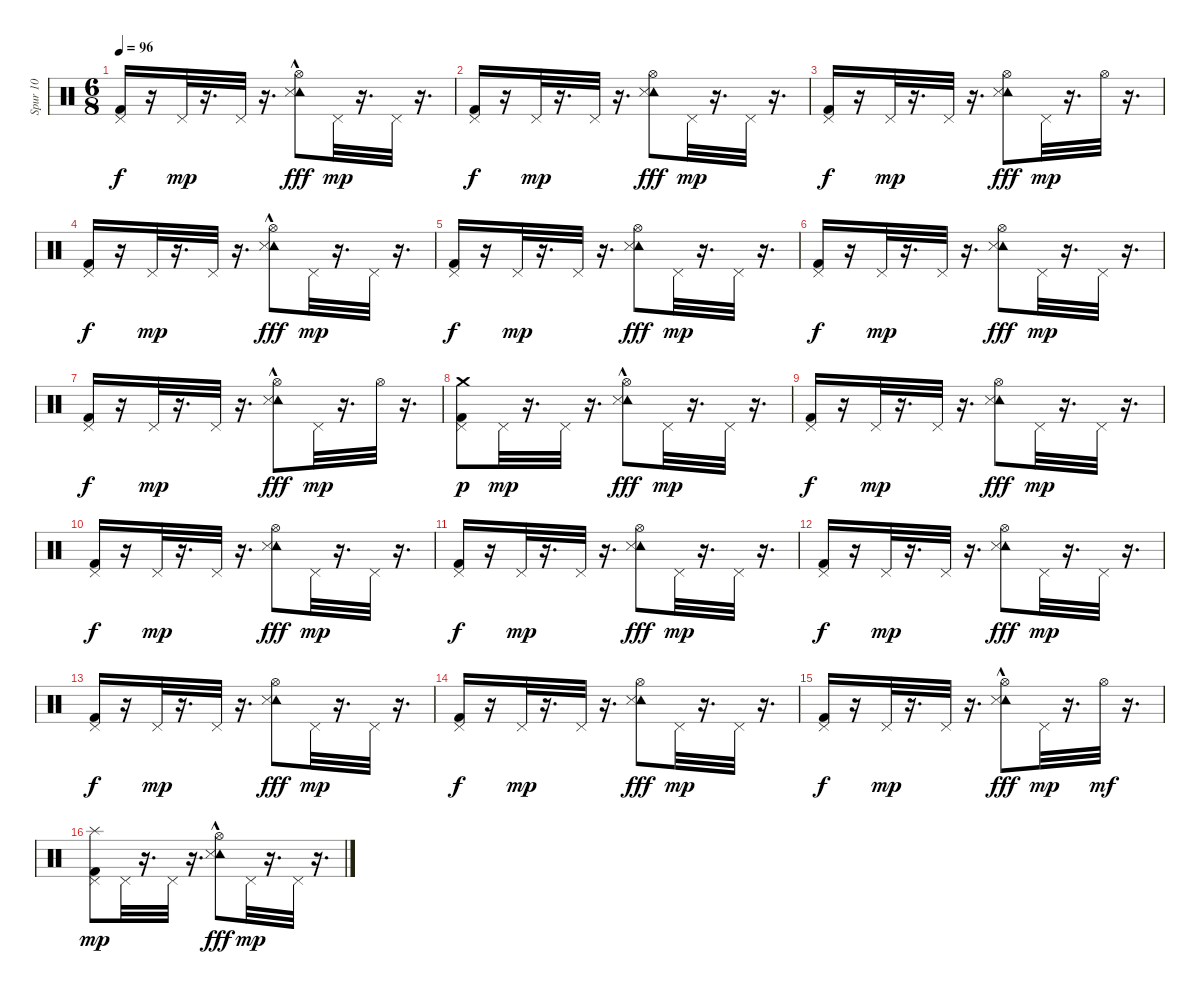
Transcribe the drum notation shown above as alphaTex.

\track ("Spur 10" "Spur 10") {instrument percussion}
\staff {score}
\articulation defaults
\ts (6 8)
\tempo 96
\clef neutral
\ks c
("Pedal Hi-Hat (hit)" "Kick (hit) 2").16{dy f} r.16 "Pedal Hi-Hat (hit)".32{dy mp} r.16{d} "Pedal Hi-Hat (hit)".32 r.16{d} ("Tambourine (hit)"{hac} "Snare (side stick) 3" "Hi-Hat (open)").8{dy fff} "Pedal Hi-Hat (hit)".32{dy mp} r.16{d} "Pedal Hi-Hat (hit)".32 r.16{d} |
("Pedal Hi-Hat (hit)" "Kick (hit) 2").16{dy f} r.16 "Pedal Hi-Hat (hit)".32{dy mp} r.16{d} "Pedal Hi-Hat (hit)".32 r.16{d} ("Tambourine (hit)" "Snare (side stick) 3" "Hi-Hat (open)").8{dy fff} "Pedal Hi-Hat (hit)".32{dy mp} r.16{d} "Pedal Hi-Hat (hit)".32 r.16{d} |
("Pedal Hi-Hat (hit)" "Kick (hit) 2").16{dy f} r.16 "Pedal Hi-Hat (hit)".32{dy mp} r.16{d} "Pedal Hi-Hat (hit)".32 r.16{d} ("Tambourine (hit)" "Snare (side stick) 3" "Hi-Hat (open)").8{dy fff} "Pedal Hi-Hat (hit)".32{dy mp} r.16{d} "Hi-Hat (open)".32 r.16{d} |
("Pedal Hi-Hat (hit)" "Kick (hit) 2").16{dy f} r.16 "Pedal Hi-Hat (hit)".32{dy mp} r.16{d} "Pedal Hi-Hat (hit)".32 r.16{d} ("Tambourine (hit)"{hac} "Snare (side stick) 3" "Hi-Hat (open)").8{dy fff} "Pedal Hi-Hat (hit)".32{dy mp} r.16{d} "Pedal Hi-Hat (hit)".32 r.16{d} |
("Pedal Hi-Hat (hit)" "Kick (hit) 2").16{dy f} r.16 "Pedal Hi-Hat (hit)".32{dy mp} r.16{d} "Pedal Hi-Hat (hit)".32 r.16{d} ("Tambourine (hit)" "Snare (side stick) 3" "Hi-Hat (open)").8{dy fff} "Pedal Hi-Hat (hit)".32{dy mp} r.16{d} "Pedal Hi-Hat (hit)".32 r.16{d} |
("Pedal Hi-Hat (hit)" "Kick (hit) 2").16{dy f} r.16 "Pedal Hi-Hat (hit)".32{dy mp} r.16{d} "Pedal Hi-Hat (hit)".32 r.16{d} ("Tambourine (hit)" "Snare (side stick) 3" "Hi-Hat (open)").8{dy fff} "Pedal Hi-Hat (hit)".32{dy mp} r.16{d} "Pedal Hi-Hat (hit)".32 r.16{d} |
("Pedal Hi-Hat (hit)" "Kick (hit) 2").16{dy f} r.16 "Pedal Hi-Hat (hit)".32{dy mp} r.16{d} "Pedal Hi-Hat (hit)".32 r.16{d} ("Tambourine (hit)"{hac} "Snare (side stick) 3" "Hi-Hat (open)").8{dy fff} "Pedal Hi-Hat (hit)".32{dy mp} r.16{d} "Hi-Hat (open)".32 r.16{d} |
("Crash medium (hit)" "Pedal Hi-Hat (hit)" "Kick (hit) 2").8{dy p} "Pedal Hi-Hat (hit)".32{dy mp} r.16{d} "Pedal Hi-Hat (hit)".32 r.16{d} ("Tambourine (hit)"{hac} "Snare (side stick) 3" "Hi-Hat (open)").8{dy fff} "Pedal Hi-Hat (hit)".32{dy mp} r.16{d} "Pedal Hi-Hat (hit)".32 r.16{d} |
("Pedal Hi-Hat (hit)" "Kick (hit) 2").16{dy f} r.16 "Pedal Hi-Hat (hit)".32{dy mp} r.16{d} "Pedal Hi-Hat (hit)".32 r.16{d} ("Tambourine (hit)" "Snare (side stick) 3" "Hi-Hat (open)").8{dy fff} "Pedal Hi-Hat (hit)".32{dy mp} r.16{d} "Pedal Hi-Hat (hit)".32 r.16{d} |
("Pedal Hi-Hat (hit)" "Kick (hit) 2").16{dy f} r.16 "Pedal Hi-Hat (hit)".32{dy mp} r.16{d} "Pedal Hi-Hat (hit)".32 r.16{d} ("Tambourine (hit)" "Snare (side stick) 3" "Hi-Hat (open)").8{dy fff} "Pedal Hi-Hat (hit)".32{dy mp} r.16{d} "Pedal Hi-Hat (hit)".32 r.16{d} |
("Pedal Hi-Hat (hit)" "Kick (hit) 2").16{dy f} r.16 "Pedal Hi-Hat (hit)".32{dy mp} r.16{d} "Pedal Hi-Hat (hit)".32 r.16{d} ("Tambourine (hit)" "Snare (side stick) 3" "Hi-Hat (open)").8{dy fff} "Pedal Hi-Hat (hit)".32{dy mp} r.16{d} "Pedal Hi-Hat (hit)".32 r.16{d} |
("Pedal Hi-Hat (hit)" "Kick (hit) 2").16{dy f} r.16 "Pedal Hi-Hat (hit)".32{dy mp} r.16{d} "Pedal Hi-Hat (hit)".32 r.16{d} ("Tambourine (hit)" "Snare (side stick) 3" "Hi-Hat (open)").8{dy fff} "Pedal Hi-Hat (hit)".32{dy mp} r.16{d} "Pedal Hi-Hat (hit)".32 r.16{d} |
("Pedal Hi-Hat (hit)" "Kick (hit) 2").16{dy f} r.16 "Pedal Hi-Hat (hit)".32{dy mp} r.16{d} "Pedal Hi-Hat (hit)".32 r.16{d} ("Tambourine (hit)" "Snare (side stick) 3" "Hi-Hat (open)").8{dy fff} "Pedal Hi-Hat (hit)".32{dy mp} r.16{d} "Pedal Hi-Hat (hit)".32 r.16{d} |
("Pedal Hi-Hat (hit)" "Kick (hit) 2").16{dy f} r.16 "Pedal Hi-Hat (hit)".32{dy mp} r.16{d} "Pedal Hi-Hat (hit)".32 r.16{d} ("Tambourine (hit)" "Snare (side stick) 3" "Hi-Hat (open)").8{dy fff} "Pedal Hi-Hat (hit)".32{dy mp} r.16{d} "Pedal Hi-Hat (hit)".32 r.16{d} |
("Pedal Hi-Hat (hit)" "Kick (hit) 2").16{dy f} r.16 "Pedal Hi-Hat (hit)".32{dy mp} r.16{d} "Pedal Hi-Hat (hit)".32 r.16{d} ("Tambourine (hit)"{hac} "Snare (side stick) 3" "Hi-Hat (open)").8{dy fff} "Pedal Hi-Hat (hit)".32{dy mp} r.16{d} "Hi-Hat (open)".32{dy mf} r.16{d} |
("Splash (hit)" "Pedal Hi-Hat (hit)" "Kick (hit) 2").8{dy mp} "Pedal Hi-Hat (hit)".32 r.16{d} "Pedal Hi-Hat (hit)".32 r.16{d} ("Tambourine (hit)"{hac} "Snare (side stick) 3" "Hi-Hat (open)").8{dy fff} "Pedal Hi-Hat (hit)".32{dy mp} r.16{d} "Pedal Hi-Hat (hit)".32 r.16{d}
